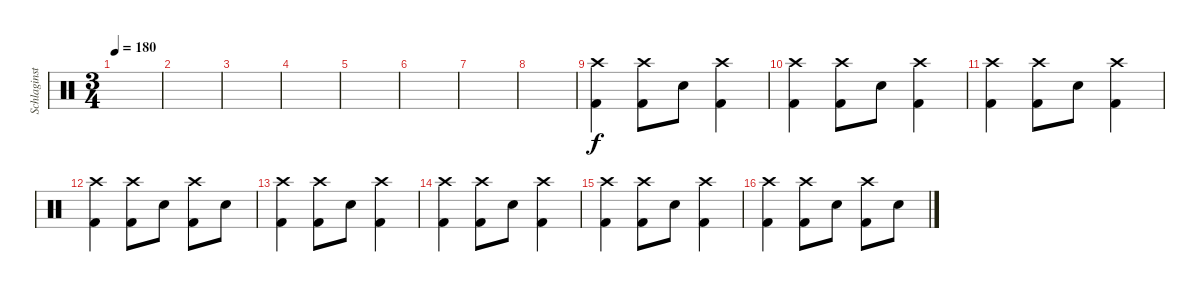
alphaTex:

\track ("Schlaginstrumente - Auswahl" "Schlaginst") {instrument percussion}
\staff {score}
\articulation defaults
\ts (3 4)
\tempo 180
\clef neutral
\ks c
|
|
|
|
|
|
|
|
("Crash high (hit)" "Kick (hit) 2").4 ("Crash high (hit)" "Kick (hit) 2").8 "Snare (hit) 2".8 ("Crash high (hit)" "Kick (hit) 2").4 |
("Crash high (hit)" "Kick (hit) 2").4 ("Crash high (hit)" "Kick (hit) 2").8 "Snare (hit) 2".8 ("Crash high (hit)" "Kick (hit) 2").4 |
("Crash high (hit)" "Kick (hit) 2").4 ("Crash high (hit)" "Kick (hit) 2").8 "Snare (hit) 2".8 ("Crash high (hit)" "Kick (hit) 2").4 |
("Crash high (hit)" "Kick (hit) 2").4 ("Crash high (hit)" "Kick (hit) 2").8 "Snare (hit) 2".8 ("Crash high (hit)" "Kick (hit) 2").8 "Snare (hit) 2".8 |
("Crash high (hit)" "Kick (hit) 2").4 ("Crash high (hit)" "Kick (hit) 2").8 "Snare (hit) 2".8 ("Crash high (hit)" "Kick (hit) 2").4 |
("Crash high (hit)" "Kick (hit) 2").4 ("Crash high (hit)" "Kick (hit) 2").8 "Snare (hit) 2".8 ("Crash high (hit)" "Kick (hit) 2").4 |
("Crash high (hit)" "Kick (hit) 2").4 ("Crash high (hit)" "Kick (hit) 2").8 "Snare (hit) 2".8 ("Crash high (hit)" "Kick (hit) 2").4 |
("Crash high (hit)" "Kick (hit) 2").4 ("Crash high (hit)" "Kick (hit) 2").8 "Snare (hit) 2".8 ("Crash high (hit)" "Kick (hit) 2").8 "Snare (hit) 2".8
